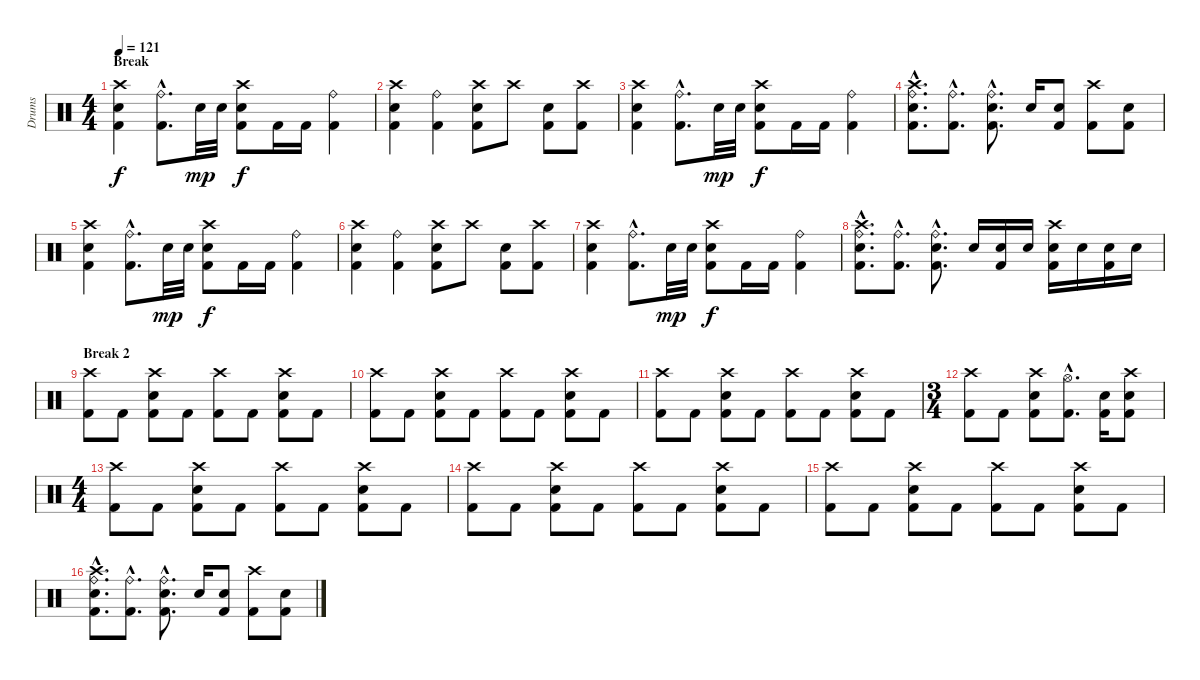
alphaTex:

\track ("Drums" "Drums") {instrument percussion}
\staff {score}
\articulation defaults
\ts (4 4)
\section ("" "Break")
\tempo 121
\clef neutral
\ks c
("Crash high (hit)" "Snare (hit) 2" "Kick (hit) 2").4{dy f} ("Ride (bell)"{hac} "Kick (hit) 2"{hac}).8{d} "Snare (hit) 2".32{dy mp} "Snare (hit) 2".32 ("Crash high (hit)" "Snare (hit) 2" "Kick (hit) 2").8{dy f} "Kick (hit) 2".16 "Kick (hit) 2".16 ("Ride (bell)" "Kick (hit) 2").4 |
("Crash high (hit)" "Snare (hit) 2" "Kick (hit) 2").4 ("Ride (bell)" "Kick (hit) 2").4 ("Crash high (hit)" "Snare (hit) 2" "Kick (hit) 2").8 "Crash high (hit)".8 ("Snare (hit) 2" "Kick (hit) 2").8 ("Crash high (hit)" "Kick (hit) 2").8 |
("Crash high (hit)" "Snare (hit) 2" "Kick (hit) 2").4 ("Ride (bell)"{hac} "Kick (hit) 2"{hac}).8{d} "Snare (hit) 2".32{dy mp} "Snare (hit) 2".32 ("Crash high (hit)" "Snare (hit) 2" "Kick (hit) 2").8{dy f} "Kick (hit) 2".16 "Kick (hit) 2".16 ("Ride (bell)" "Kick (hit) 2").4 |
("Crash high (hit)"{hac} "Ride (bell)"{hac} "Snare (hit) 2"{hac} "Kick (hit) 2"{hac}).8{d} ("Ride (bell)"{hac} "Kick (hit) 2"{hac}).8{d} ("Ride (bell)"{hac} "Snare (hit) 2"{hac} "Kick (hit) 2"{hac}).8{d} "Snare (hit) 2".16 ("Snare (hit) 2" "Kick (hit) 2").8 ("Crash high (hit)" "Kick (hit) 2").8 ("Snare (hit) 2" "Kick (hit) 2").8 |
("Crash high (hit)" "Snare (hit) 2" "Kick (hit) 2").4 ("Ride (bell)"{hac} "Kick (hit) 2"{hac}).8{d} "Snare (hit) 2".32{dy mp} "Snare (hit) 2".32 ("Crash high (hit)" "Snare (hit) 2" "Kick (hit) 2").8{dy f} "Kick (hit) 2".16 "Kick (hit) 2".16 ("Ride (bell)" "Kick (hit) 2").4 |
("Crash high (hit)" "Snare (hit) 2" "Kick (hit) 2").4 ("Ride (bell)" "Kick (hit) 2").4 ("Crash high (hit)" "Snare (hit) 2" "Kick (hit) 2").8 "Crash high (hit)".8 ("Snare (hit) 2" "Kick (hit) 2").8 ("Crash high (hit)" "Kick (hit) 2").8 |
("Crash high (hit)" "Snare (hit) 2" "Kick (hit) 2").4 ("Ride (bell)"{hac} "Kick (hit) 2"{hac}).8{d} "Snare (hit) 2".32{dy mp} "Snare (hit) 2".32 ("Crash high (hit)" "Snare (hit) 2" "Kick (hit) 2").8{dy f} "Kick (hit) 2".16 "Kick (hit) 2".16 ("Ride (bell)" "Kick (hit) 2").4 |
("Crash high (hit)"{hac} "Ride (bell)"{hac} "Snare (hit) 2"{hac} "Kick (hit) 2"{hac}).8{d} ("Ride (bell)"{hac} "Kick (hit) 2"{hac}).8{d} ("Ride (bell)"{hac} "Snare (hit) 2"{hac} "Kick (hit) 2"{hac}).8{d} "Snare (hit) 2".16 ("Snare (hit) 2" "Kick (hit) 2").16 "Snare (hit) 2".16 ("Crash high (hit)" "Snare (hit) 2" "Kick (hit) 2").16 "Snare (hit) 2".16 ("Snare (hit) 2" "Kick (hit) 2").16 "Snare (hit) 2".16 |
\section ("" "Break 2")
("Crash high (hit)" "Kick (hit) 2").8 "Kick (hit) 2".8 ("Crash high (hit)" "Snare (hit) 2" "Kick (hit) 2").8 "Kick (hit) 2".8 ("Crash high (hit)" "Kick (hit) 2").8 "Kick (hit) 2".8 ("Crash high (hit)" "Snare (hit) 2" "Kick (hit) 2").8 "Kick (hit) 2".8 |
("Crash high (hit)" "Kick (hit) 2").8 "Kick (hit) 2".8 ("Crash high (hit)" "Snare (hit) 2" "Kick (hit) 2").8 "Kick (hit) 2".8 ("Crash high (hit)" "Kick (hit) 2").8 "Kick (hit) 2".8 ("Crash high (hit)" "Snare (hit) 2" "Kick (hit) 2").8 "Kick (hit) 2".8 |
("Crash high (hit)" "Kick (hit) 2").8 "Kick (hit) 2".8 ("Crash high (hit)" "Snare (hit) 2" "Kick (hit) 2").8 "Kick (hit) 2".8 ("Crash high (hit)" "Kick (hit) 2").8 "Kick (hit) 2".8 ("Crash high (hit)" "Snare (hit) 2" "Kick (hit) 2").8 "Kick (hit) 2".8 |
\ts (3 4)
("Crash high (hit)" "Kick (hit) 2").8 "Kick (hit) 2".8 ("Crash high (hit)" "Snare (hit) 2" "Kick (hit) 2").8 ("Hi-Hat (open)"{hac} "Kick (hit) 2"{hac}).8{d} ("Snare (hit) 2" "Kick (hit) 2").16 ("Crash high (hit)" "Snare (hit) 2" "Kick (hit) 2").8 |
\ts (4 4)
("Crash high (hit)" "Kick (hit) 2").8 "Kick (hit) 2".8 ("Crash high (hit)" "Snare (hit) 2" "Kick (hit) 2").8 "Kick (hit) 2".8 ("Crash high (hit)" "Kick (hit) 2").8 "Kick (hit) 2".8 ("Crash high (hit)" "Snare (hit) 2" "Kick (hit) 2").8 "Kick (hit) 2".8 |
("Crash high (hit)" "Kick (hit) 2").8 "Kick (hit) 2".8 ("Crash high (hit)" "Snare (hit) 2" "Kick (hit) 2").8 "Kick (hit) 2".8 ("Crash high (hit)" "Kick (hit) 2").8 "Kick (hit) 2".8 ("Crash high (hit)" "Snare (hit) 2" "Kick (hit) 2").8 "Kick (hit) 2".8 |
("Crash high (hit)" "Kick (hit) 2").8 "Kick (hit) 2".8 ("Crash high (hit)" "Snare (hit) 2" "Kick (hit) 2").8 "Kick (hit) 2".8 ("Crash high (hit)" "Kick (hit) 2").8 "Kick (hit) 2".8 ("Crash high (hit)" "Snare (hit) 2" "Kick (hit) 2").8 "Kick (hit) 2".8 |
("Crash high (hit)"{hac} "Ride (bell)"{hac} "Snare (hit) 2"{hac} "Kick (hit) 2"{hac}).8{d} ("Ride (bell)"{hac} "Kick (hit) 2"{hac}).8{d} ("Ride (bell)"{hac} "Snare (hit) 2"{hac} "Kick (hit) 2"{hac}).8{d} "Snare (hit) 2".16 ("Snare (hit) 2" "Kick (hit) 2").8 ("Crash high (hit)" "Kick (hit) 2").8 ("Snare (hit) 2" "Kick (hit) 2").8
